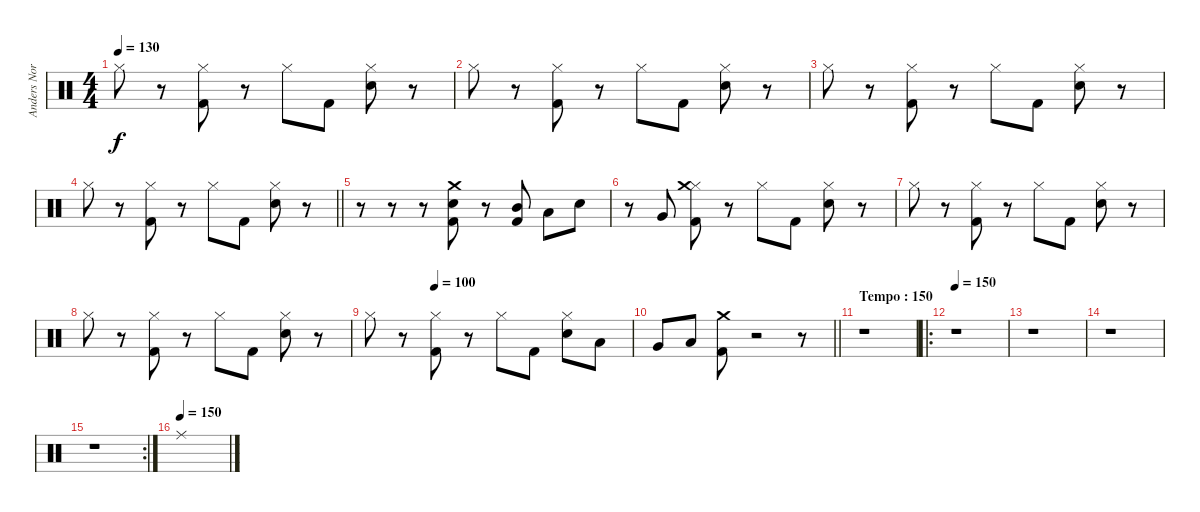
\track ("Anders Nordin" "Anders Nor") {instrument percussion}
\staff {score}
\articulation defaults
\ts (4 4)
\section ("" "")
\tempo 130
\clef neutral
\ks c "Hi-Hat (closed)".8{dy f}
r.8 ("Hi-Hat (closed)" "Kick (hit) 2").8 r.8 "Hi-Hat (closed)".8 "Kick (hit) 2".8 ("Hi-Hat (closed)" "Snare (hit) 2").8 r.8 |
"Hi-Hat (closed)".8 r.8 ("Hi-Hat (closed)" "Kick (hit) 2").8 r.8 "Hi-Hat (closed)".8 "Kick (hit) 2".8 ("Hi-Hat (closed)" "Snare (hit) 2").8 r.8 |
"Hi-Hat (closed)".8 r.8 ("Hi-Hat (closed)" "Kick (hit) 2").8 r.8 "Hi-Hat (closed)".8 "Kick (hit) 2".8 ("Hi-Hat (closed)" "Snare (hit) 2").8 r.8 |
\barLineRight lightlight "Hi-Hat (closed)".8
r.8 ("Hi-Hat (closed)" "Kick (hit) 2").8 r.8 "Hi-Hat (closed)".8 "Kick (hit) 2".8 ("Hi-Hat (closed)" "Snare (hit) 2").8 r.8 |
\section ("" "")
r.8 r.8 r.8 ("Crash medium (hit)" "Kick (hit) 2" "Snare (hit) 2").8 r.8 ("Mid Tom (hit)" "Kick (hit) 2").8 "Low Tom (hit)".8 "Snare (hit) 2".8 |
r.8 "Very Low Tom (hit)".8 ("Hi-Hat (closed)" "Crash medium (hit)" "Kick (hit) 2").8 r.8 "Hi-Hat (closed)".8 "Kick (hit) 2".8 ("Hi-Hat (closed)" "Snare (hit) 2").8 r.8 |
"Hi-Hat (closed)".8 r.8 ("Hi-Hat (closed)" "Kick (hit) 2").8 r.8 "Hi-Hat (closed)".8 "Kick (hit) 2".8 ("Hi-Hat (closed)" "Snare (hit) 2").8 r.8 |
"Hi-Hat (closed)".8 r.8 ("Hi-Hat (closed)" "Kick (hit) 2").8 r.8 "Hi-Hat (closed)".8 "Kick (hit) 2".8 ("Hi-Hat (closed)" "Snare (hit) 2").8 r.8 |
\tempo (100 0.25)
"Hi-Hat (closed)".8 r.8 ("Hi-Hat (closed)" "Kick (hit) 2").8 r.8 "Hi-Hat (closed)".8 "Kick (hit) 2".8 ("Hi-Hat (closed)" "Snare (hit) 2").8 "Low Tom (hit)".8 |
\barLineRight lightlight "Very Low Tom (hit)".8 "Low Floor Tom (hit)".8
("Crash medium (hit)" "Kick (hit) 2").8 r.2 r.8 |
\section ("" "Tempo : 150")
r.1 |
\ro
\tempo 150
r.1 |
r.1 |
r.1 |
\rc 2
r.1 |
\tempo (150)
"Ride (middle)".1
